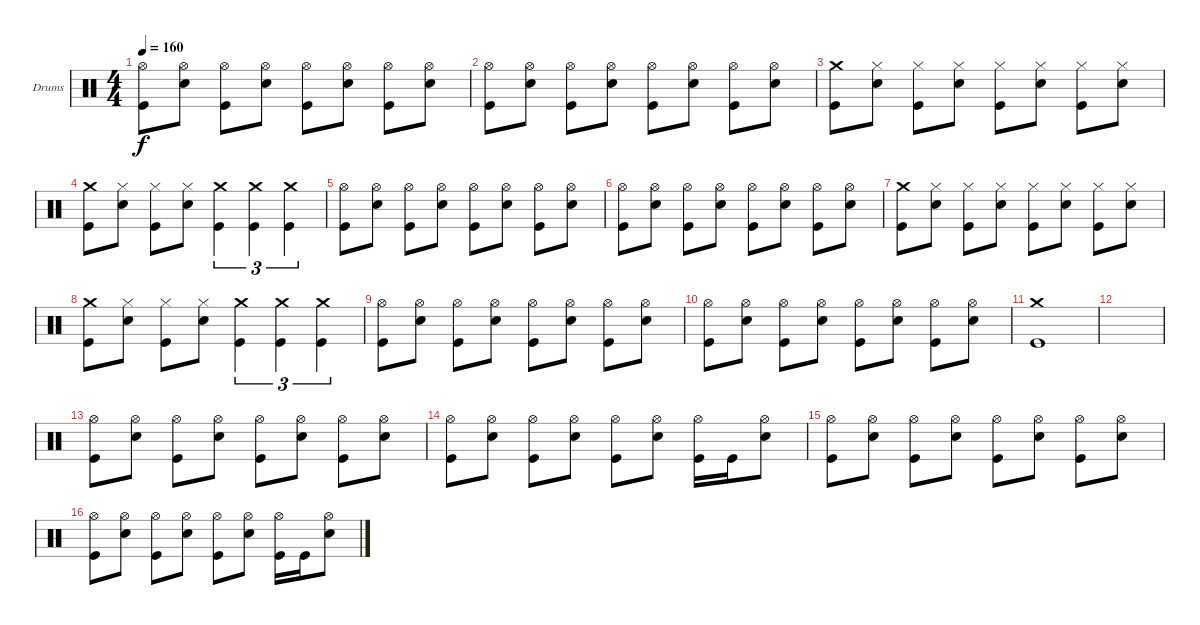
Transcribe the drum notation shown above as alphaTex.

\bracketExtendMode groupsimilarinstruments
\firstSystemTrackNameOrientation horizontal
\otherSystemsTrackNameOrientation horizontal
\track ("Drums" "Drums") {instrument percussion}
\staff {score}
\articulation defaults
\ts (4 4)
\tempo 160
\clef neutral
\ks c
("Hi-Hat (open)" "Kick (hit)").8{dy f} ("Hi-Hat (open)" "Snare (hit) 2").8 ("Hi-Hat (open)" "Kick (hit)").8 ("Hi-Hat (open)" "Snare (hit) 2").8 ("Hi-Hat (open)" "Kick (hit)").8 ("Hi-Hat (open)" "Snare (hit) 2").8 ("Hi-Hat (open)" "Kick (hit)").8 ("Hi-Hat (open)" "Snare (hit) 2").8 |
("Hi-Hat (open)" "Kick (hit)").8 ("Hi-Hat (open)" "Snare (hit) 2").8 ("Hi-Hat (open)" "Kick (hit)").8 ("Hi-Hat (open)" "Snare (hit) 2").8 ("Hi-Hat (open)" "Kick (hit)").8 ("Hi-Hat (open)" "Snare (hit) 2").8 ("Hi-Hat (open)" "Kick (hit)").8 ("Hi-Hat (open)" "Snare (hit) 2").8 |
("Crash medium (hit)" "Kick (hit)").8 ("Hi-Hat (closed)" "Snare (hit) 2").8 ("Hi-Hat (closed)" "Kick (hit)").8 ("Hi-Hat (closed)" "Snare (hit) 2").8 ("Hi-Hat (closed)" "Kick (hit)").8 ("Hi-Hat (closed)" "Snare (hit) 2").8 ("Hi-Hat (closed)" "Kick (hit)").8 ("Hi-Hat (closed)" "Snare (hit) 2").8 |
("Crash medium (hit)" "Kick (hit)").8 ("Hi-Hat (closed)" "Snare (hit) 2").8 ("Hi-Hat (closed)" "Kick (hit)").8 ("Hi-Hat (closed)" "Snare (hit) 2").8 ("Crash medium (hit)" "Kick (hit)").4{tu (3 2)} ("Crash medium (hit)" "Kick (hit)").4{tu (3 2)} ("Crash medium (hit)" "Kick (hit)").4{tu (3 2)} |
("Hi-Hat (open)" "Kick (hit)").8 ("Hi-Hat (open)" "Snare (hit) 2").8 ("Hi-Hat (open)" "Kick (hit)").8 ("Hi-Hat (open)" "Snare (hit) 2").8 ("Hi-Hat (open)" "Kick (hit)").8 ("Hi-Hat (open)" "Snare (hit) 2").8 ("Hi-Hat (open)" "Kick (hit)").8 ("Hi-Hat (open)" "Snare (hit) 2").8 |
("Hi-Hat (open)" "Kick (hit)").8 ("Hi-Hat (open)" "Snare (hit) 2").8 ("Hi-Hat (open)" "Kick (hit)").8 ("Hi-Hat (open)" "Snare (hit) 2").8 ("Hi-Hat (open)" "Kick (hit)").8 ("Hi-Hat (open)" "Snare (hit) 2").8 ("Hi-Hat (open)" "Kick (hit)").8 ("Hi-Hat (open)" "Snare (hit) 2").8 |
("Crash medium (hit)" "Kick (hit)").8 ("Hi-Hat (closed)" "Snare (hit) 2").8 ("Hi-Hat (closed)" "Kick (hit)").8 ("Hi-Hat (closed)" "Snare (hit) 2").8 ("Hi-Hat (closed)" "Kick (hit)").8 ("Hi-Hat (closed)" "Snare (hit) 2").8 ("Hi-Hat (closed)" "Kick (hit)").8 ("Hi-Hat (closed)" "Snare (hit) 2").8 |
("Crash medium (hit)" "Kick (hit)").8 ("Hi-Hat (closed)" "Snare (hit) 2").8 ("Hi-Hat (closed)" "Kick (hit)").8 ("Hi-Hat (closed)" "Snare (hit) 2").8 ("Crash medium (hit)" "Kick (hit)").4{tu (3 2)} ("Crash medium (hit)" "Kick (hit)").4{tu (3 2)} ("Crash medium (hit)" "Kick (hit)").4{tu (3 2)} |
("Hi-Hat (open)" "Kick (hit)").8 ("Hi-Hat (open)" "Snare (hit) 2").8 ("Hi-Hat (open)" "Kick (hit)").8 ("Hi-Hat (open)" "Snare (hit) 2").8 ("Hi-Hat (open)" "Kick (hit)").8 ("Hi-Hat (open)" "Snare (hit) 2").8 ("Hi-Hat (open)" "Kick (hit)").8 ("Hi-Hat (open)" "Snare (hit) 2").8 |
("Hi-Hat (open)" "Kick (hit)").8 ("Hi-Hat (open)" "Snare (hit) 2").8 ("Hi-Hat (open)" "Kick (hit)").8 ("Hi-Hat (open)" "Snare (hit) 2").8 ("Hi-Hat (open)" "Kick (hit)").8 ("Hi-Hat (open)" "Snare (hit) 2").8 ("Hi-Hat (open)" "Kick (hit)").8 ("Hi-Hat (open)" "Snare (hit) 2").8 |
("Crash medium (hit)" "Kick (hit)").1 |
|
("Hi-Hat (open)" "Kick (hit)").8 ("Hi-Hat (open)" "Snare (hit) 2").8 ("Hi-Hat (open)" "Kick (hit)").8 ("Hi-Hat (open)" "Snare (hit) 2").8 ("Hi-Hat (open)" "Kick (hit)").8 ("Hi-Hat (open)" "Snare (hit) 2").8 ("Hi-Hat (open)" "Kick (hit)").8 ("Hi-Hat (open)" "Snare (hit) 2").8 |
("Hi-Hat (open)" "Kick (hit)").8 ("Hi-Hat (open)" "Snare (hit) 2").8 ("Hi-Hat (open)" "Kick (hit)").8 ("Hi-Hat (open)" "Snare (hit) 2").8 ("Hi-Hat (open)" "Kick (hit)").8 ("Hi-Hat (open)" "Snare (hit) 2").8 ("Hi-Hat (open)" "Kick (hit)").16 "Kick (hit)".16 ("Hi-Hat (open)" "Snare (hit) 2").8 |
("Hi-Hat (open)" "Kick (hit)").8 ("Hi-Hat (open)" "Snare (hit) 2").8 ("Hi-Hat (open)" "Kick (hit)").8 ("Hi-Hat (open)" "Snare (hit) 2").8 ("Hi-Hat (open)" "Kick (hit)").8 ("Hi-Hat (open)" "Snare (hit) 2").8 ("Hi-Hat (open)" "Kick (hit)").8 ("Hi-Hat (open)" "Snare (hit) 2").8 |
("Hi-Hat (open)" "Kick (hit)").8 ("Hi-Hat (open)" "Snare (hit) 2").8 ("Hi-Hat (open)" "Kick (hit)").8 ("Hi-Hat (open)" "Snare (hit) 2").8 ("Hi-Hat (open)" "Kick (hit)").8 ("Hi-Hat (open)" "Snare (hit) 2").8 ("Hi-Hat (open)" "Kick (hit)").16 "Kick (hit)".16 ("Hi-Hat (open)" "Snare (hit) 2").8
